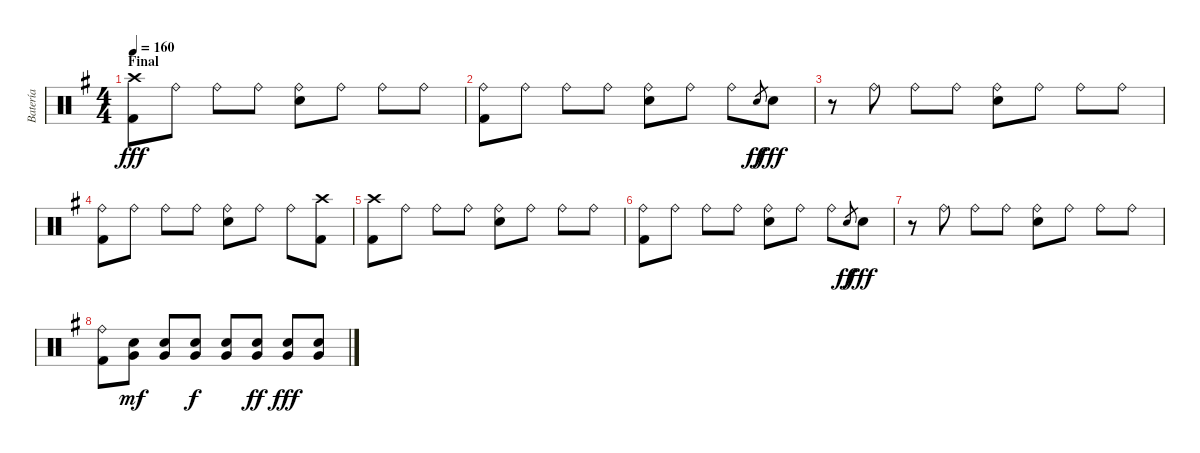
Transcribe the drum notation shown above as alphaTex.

\track ("Batería" "Batería") {instrument percussion}
\staff {score}
\articulation defaults
\ts (4 4)
\section ("" "Final")
\tempo 160
\clef neutral
\ks g
("Crash high (hit)" "Kick (hit) 2").8{dy fff} "Ride (bell)".8 "Ride (bell)".8 "Ride (bell)".8 ("Ride (bell)" "Snare (hit) 2").8 "Ride (bell)".8 "Ride (bell)".8 "Ride (bell)".8 |
("Ride (bell)" "Kick (hit) 2").8 "Ride (bell)".8 "Ride (bell)".8 "Ride (bell)".8 ("Ride (bell)" "Snare (hit) 2").8 "Ride (bell)".8 "Ride (bell)".8 "Snare (hit) 2".8{gr dy ff} "Snare (hit) 2".8{dy fff} |
r.8 "Ride (bell)".8 "Ride (bell)".8 "Ride (bell)".8 ("Ride (bell)" "Snare (hit) 2").8 "Ride (bell)".8 "Ride (bell)".8 "Ride (bell)".8 |
("Ride (bell)" "Kick (hit) 2").8 "Ride (bell)".8 "Ride (bell)".8 "Ride (bell)".8 ("Ride (bell)" "Snare (hit) 2").8 "Ride (bell)".8 "Ride (bell)".8 ("Crash high (hit)" "Kick (hit) 2").8 |
("Crash high (hit)" "Kick (hit) 2").8 "Ride (bell)".8 "Ride (bell)".8 "Ride (bell)".8 ("Ride (bell)" "Snare (hit) 2").8 "Ride (bell)".8 "Ride (bell)".8 "Ride (bell)".8 |
("Ride (bell)" "Kick (hit) 2").8 "Ride (bell)".8 "Ride (bell)".8 "Ride (bell)".8 ("Ride (bell)" "Snare (hit) 2").8 "Ride (bell)".8 "Ride (bell)".8 "Snare (hit) 2".8{gr dy ff} "Snare (hit) 2".8{dy fff} |
r.8 "Ride (bell)".8 "Ride (bell)".8 "Ride (bell)".8 ("Ride (bell)" "Snare (hit) 2").8 "Ride (bell)".8 "Ride (bell)".8 "Ride (bell)".8 |
("Ride (bell)" "Kick (hit) 2").8 ("Snare (hit) 2" "Very Low Tom (hit)").8{dy mf} ("Snare (hit) 2" "Very Low Tom (hit)").8 ("Snare (hit) 2" "Very Low Tom (hit)").8{dy f} ("Snare (hit) 2" "Very Low Tom (hit)").8 ("Snare (hit) 2" "Very Low Tom (hit)").8{dy ff} ("Snare (hit) 2" "Very Low Tom (hit)").8{dy fff} ("Snare (hit) 2" "Very Low Tom (hit)").8
